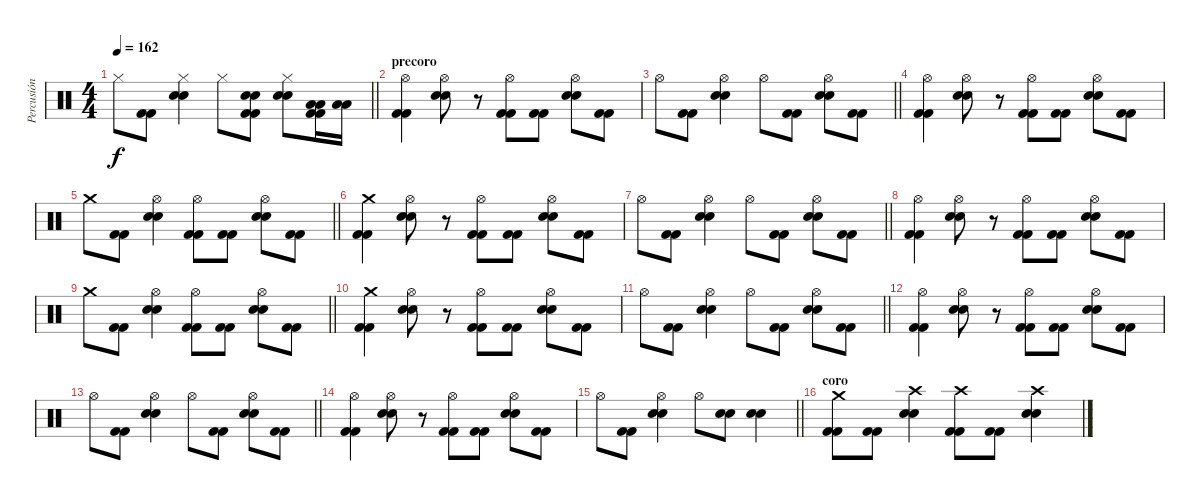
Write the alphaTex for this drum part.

\track ("Percusión" "Percusión") {instrument percussion}
\staff {score}
\articulation defaults
\ts (4 4)
\tempo 162
\clef neutral
\barLineRight lightlight
\ks c "Hi-Hat (closed)".8{dy f}
("Kick (hit) 2" "Kick (hit) 2").8 ("Hi-Hat (closed)" "Electric Snare (hit)" "Electric Snare (hit)").4 "Hi-Hat (closed)".8 ("Electric Snare (hit)" "Electric Snare (hit)" "Kick (hit) 2" "Kick (hit) 2").8 ("Hi-Hat (closed)" "Electric Snare (hit)" "Electric Snare (hit)").8 ("Low Tom (hit)" "Low Tom (hit)" "Kick (hit) 2" "Kick (hit) 2").16 ("Low Tom (hit)" "Low Tom (hit)").16 |
\section ("" "precoro")
("Hi-Hat (open)" "Kick (hit) 2" "Kick (hit) 2").4 ("Hi-Hat (open)" "Electric Snare (hit)" "Electric Snare (hit)").8 r.8 ("Hi-Hat (open)" "Kick (hit) 2" "Kick (hit) 2").8 ("Kick (hit) 2" "Kick (hit) 2").8 ("Hi-Hat (open)" "Electric Snare (hit)" "Electric Snare (hit)").8 ("Kick (hit) 2" "Kick (hit) 2").8 |
\barLineRight lightlight "Hi-Hat (open)".8
("Kick (hit) 2" "Kick (hit) 2").8 ("Hi-Hat (open)" "Electric Snare (hit)" "Electric Snare (hit)").4 "Hi-Hat (open)".8 ("Kick (hit) 2" "Kick (hit) 2").8 ("Hi-Hat (open)" "Electric Snare (hit)" "Electric Snare (hit)").8 ("Kick (hit) 2" "Kick (hit) 2").8 |
("Hi-Hat (open)" "Kick (hit) 2" "Kick (hit) 2").4 ("Hi-Hat (open)" "Electric Snare (hit)" "Electric Snare (hit)").8 r.8 ("Hi-Hat (open)" "Kick (hit) 2" "Kick (hit) 2").8 ("Kick (hit) 2" "Kick (hit) 2").8 ("Hi-Hat (open)" "Electric Snare (hit)" "Electric Snare (hit)").8 ("Kick (hit) 2" "Kick (hit) 2").8 |
\barLineRight lightlight "Crash medium (hit)".8
("Kick (hit) 2" "Kick (hit) 2").8 ("Hi-Hat (open)" "Electric Snare (hit)" "Electric Snare (hit)").4 ("Hi-Hat (open)" "Kick (hit) 2" "Kick (hit) 2").8 ("Kick (hit) 2" "Kick (hit) 2").8 ("Hi-Hat (open)" "Electric Snare (hit)" "Electric Snare (hit)").8 ("Kick (hit) 2" "Kick (hit) 2").8 |
("Crash medium (hit)" "Kick (hit) 2" "Kick (hit) 2").4 ("Hi-Hat (open)" "Electric Snare (hit)" "Electric Snare (hit)").8 r.8 ("Hi-Hat (open)" "Kick (hit) 2" "Kick (hit) 2").8 ("Kick (hit) 2" "Kick (hit) 2").8 ("Hi-Hat (open)" "Electric Snare (hit)" "Electric Snare (hit)").8 ("Kick (hit) 2" "Kick (hit) 2").8 |
\barLineRight lightlight "Hi-Hat (open)".8
("Kick (hit) 2" "Kick (hit) 2").8 ("Hi-Hat (open)" "Electric Snare (hit)" "Electric Snare (hit)").4 "Hi-Hat (open)".8 ("Kick (hit) 2" "Kick (hit) 2").8 ("Hi-Hat (open)" "Electric Snare (hit)" "Electric Snare (hit)").8 ("Kick (hit) 2" "Kick (hit) 2").8 |
("Hi-Hat (open)" "Kick (hit) 2" "Kick (hit) 2").4 ("Hi-Hat (open)" "Electric Snare (hit)" "Electric Snare (hit)").8 r.8 ("Hi-Hat (open)" "Kick (hit) 2" "Kick (hit) 2").8 ("Kick (hit) 2" "Kick (hit) 2").8 ("Hi-Hat (open)" "Electric Snare (hit)" "Electric Snare (hit)").8 ("Kick (hit) 2" "Kick (hit) 2").8 |
\barLineRight lightlight "Crash medium (hit)".8
("Kick (hit) 2" "Kick (hit) 2").8 ("Hi-Hat (open)" "Electric Snare (hit)" "Electric Snare (hit)").4 ("Hi-Hat (open)" "Kick (hit) 2" "Kick (hit) 2").8 ("Kick (hit) 2" "Kick (hit) 2").8 ("Hi-Hat (open)" "Electric Snare (hit)" "Electric Snare (hit)").8 ("Kick (hit) 2" "Kick (hit) 2").8 |
("Crash medium (hit)" "Kick (hit) 2" "Kick (hit) 2").4 ("Hi-Hat (open)" "Electric Snare (hit)" "Electric Snare (hit)").8 r.8 ("Hi-Hat (open)" "Kick (hit) 2" "Kick (hit) 2").8 ("Kick (hit) 2" "Kick (hit) 2").8 ("Hi-Hat (open)" "Electric Snare (hit)" "Electric Snare (hit)").8 ("Kick (hit) 2" "Kick (hit) 2").8 |
\barLineRight lightlight "Hi-Hat (open)".8
("Kick (hit) 2" "Kick (hit) 2").8 ("Hi-Hat (open)" "Electric Snare (hit)" "Electric Snare (hit)").4 "Hi-Hat (open)".8 ("Kick (hit) 2" "Kick (hit) 2").8 ("Hi-Hat (open)" "Electric Snare (hit)" "Electric Snare (hit)").8 ("Kick (hit) 2" "Kick (hit) 2").8 |
("Hi-Hat (open)" "Kick (hit) 2" "Kick (hit) 2").4 ("Hi-Hat (open)" "Electric Snare (hit)" "Electric Snare (hit)").8 r.8 ("Hi-Hat (open)" "Kick (hit) 2" "Kick (hit) 2").8 ("Kick (hit) 2" "Kick (hit) 2").8 ("Hi-Hat (open)" "Electric Snare (hit)" "Electric Snare (hit)").8 ("Kick (hit) 2" "Kick (hit) 2").8 |
\barLineRight lightlight "Hi-Hat (open)".8
("Kick (hit) 2" "Kick (hit) 2").8 ("Hi-Hat (open)" "Electric Snare (hit)" "Electric Snare (hit)").4 "Hi-Hat (open)".8 ("Kick (hit) 2" "Kick (hit) 2").8 ("Hi-Hat (open)" "Electric Snare (hit)" "Electric Snare (hit)").8 ("Kick (hit) 2" "Kick (hit) 2").8 |
("Hi-Hat (open)" "Kick (hit) 2" "Kick (hit) 2").4 ("Hi-Hat (open)" "Electric Snare (hit)" "Electric Snare (hit)").8 r.8 ("Hi-Hat (open)" "Kick (hit) 2" "Kick (hit) 2").8 ("Kick (hit) 2" "Kick (hit) 2").8 ("Hi-Hat (open)" "Electric Snare (hit)" "Electric Snare (hit)").8 ("Kick (hit) 2" "Kick (hit) 2").8 |
\barLineRight lightlight "Hi-Hat (open)".8
("Kick (hit) 2" "Kick (hit) 2").8 ("Hi-Hat (open)" "Electric Snare (hit)" "Electric Snare (hit)").4 "Hi-Hat (open)".8 ("Electric Snare (hit)" "Electric Snare (hit)").8 ("Electric Snare (hit)" "Electric Snare (hit)").4 |
\section ("" "coro")
("Crash medium (hit)" "Kick (hit) 2" "Kick (hit) 2").8 ("Kick (hit) 2" "Kick (hit) 2").8 ("Crash high (hit)" "Electric Snare (hit)" "Electric Snare (hit)").4 ("Crash high (hit)" "Kick (hit) 2" "Kick (hit) 2").8 ("Kick (hit) 2" "Kick (hit) 2").8 ("Crash high (hit)" "Electric Snare (hit)" "Electric Snare (hit)").4
